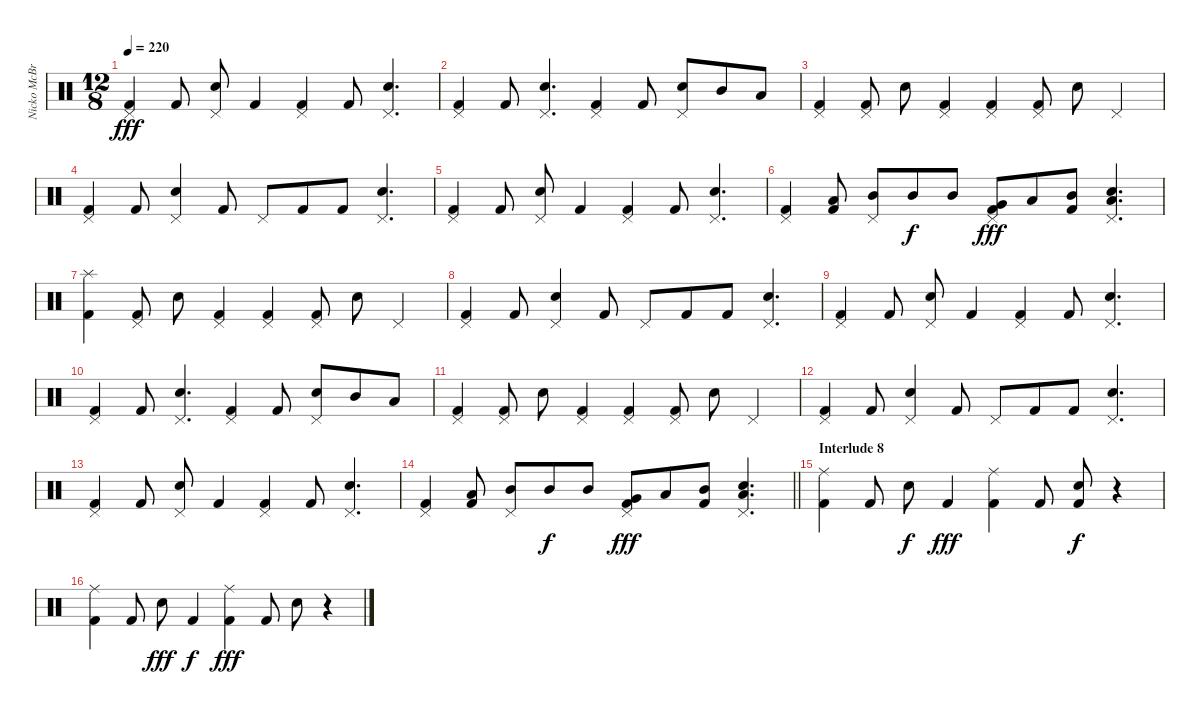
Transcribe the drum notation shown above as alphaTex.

\track ("Nicko McBrain" "Nicko McBr") {instrument percussion}
\staff {score}
\articulation defaults
\ts (12 8)
\tempo 220
\clef neutral
\ks c
("Pedal Hi-Hat (hit)" "Kick (hit) 2").4{dy fff} "Kick (hit) 2".8 ("Snare (hit) 2" "Pedal Hi-Hat (hit)").8 "Kick (hit) 2".4 ("Pedal Hi-Hat (hit)" "Kick (hit) 2").4 "Kick (hit) 2".8 ("Snare (hit) 2" "Pedal Hi-Hat (hit)").4{d} |
("Pedal Hi-Hat (hit)" "Kick (hit) 2").4 "Kick (hit) 2".8 ("Snare (hit) 2" "Pedal Hi-Hat (hit)").4{d} ("Pedal Hi-Hat (hit)" "Kick (hit) 2").4 "Kick (hit) 2".8 ("Snare (hit) 2" "Pedal Hi-Hat (hit)").8 "Mid Tom (hit)".8 "Low Tom (hit)".8 |
("Pedal Hi-Hat (hit)" "Kick (hit) 2").4 ("Pedal Hi-Hat (hit)" "Kick (hit) 2").8 "Snare (hit) 2".8 ("Pedal Hi-Hat (hit)" "Kick (hit) 2").4 ("Pedal Hi-Hat (hit)" "Kick (hit) 2").4 ("Pedal Hi-Hat (hit)" "Kick (hit) 2").8 "Snare (hit) 2".8 "Pedal Hi-Hat (hit)".4 |
("Pedal Hi-Hat (hit)" "Kick (hit) 2").4 "Kick (hit) 2".8 ("Snare (hit) 2" "Pedal Hi-Hat (hit)").4 "Kick (hit) 2".8 "Pedal Hi-Hat (hit)".8 "Kick (hit) 2".8 "Kick (hit) 2".8 ("Snare (hit) 2" "Pedal Hi-Hat (hit)").4{d} |
("Pedal Hi-Hat (hit)" "Kick (hit) 2").4 "Kick (hit) 2".8 ("Snare (hit) 2" "Pedal Hi-Hat (hit)").8 "Kick (hit) 2".4 ("Pedal Hi-Hat (hit)" "Kick (hit) 2").4 "Kick (hit) 2".8 ("Snare (hit) 2" "Pedal Hi-Hat (hit)").4{d} |
("Pedal Hi-Hat (hit)" "Kick (hit) 2").4 ("Low Tom (hit)" "Kick (hit) 2").8 ("Mid Tom (hit)" "Pedal Hi-Hat (hit)").8 "Mid Tom (hit)".8{dy f} "Mid Tom (hit)".8 ("Very Low Tom (hit)" "Pedal Hi-Hat (hit)" "Kick (hit) 2").8{dy fff} "Low Tom (hit)".8 ("Mid Tom (hit)" "Kick (hit) 2").8 ("Snare (hit) 2" "Low Tom (hit)" "Pedal Hi-Hat (hit)").4{d} |
("Splash (hit)" "Kick (hit) 2").4 ("Pedal Hi-Hat (hit)" "Kick (hit) 2").8 "Snare (hit) 2".8 ("Pedal Hi-Hat (hit)" "Kick (hit) 2").4 ("Pedal Hi-Hat (hit)" "Kick (hit) 2").4 ("Pedal Hi-Hat (hit)" "Kick (hit) 2").8 "Snare (hit) 2".8 "Pedal Hi-Hat (hit)".4 |
("Pedal Hi-Hat (hit)" "Kick (hit) 2").4 "Kick (hit) 2".8 ("Snare (hit) 2" "Pedal Hi-Hat (hit)").4 "Kick (hit) 2".8 "Pedal Hi-Hat (hit)".8 "Kick (hit) 2".8 "Kick (hit) 2".8 ("Snare (hit) 2" "Pedal Hi-Hat (hit)").4{d} |
("Pedal Hi-Hat (hit)" "Kick (hit) 2").4 "Kick (hit) 2".8 ("Snare (hit) 2" "Pedal Hi-Hat (hit)").8 "Kick (hit) 2".4 ("Pedal Hi-Hat (hit)" "Kick (hit) 2").4 "Kick (hit) 2".8 ("Snare (hit) 2" "Pedal Hi-Hat (hit)").4{d} |
("Pedal Hi-Hat (hit)" "Kick (hit) 2").4 "Kick (hit) 2".8 ("Snare (hit) 2" "Pedal Hi-Hat (hit)").4{d} ("Pedal Hi-Hat (hit)" "Kick (hit) 2").4 "Kick (hit) 2".8 ("Snare (hit) 2" "Pedal Hi-Hat (hit)").8 "Mid Tom (hit)".8 "Low Tom (hit)".8 |
("Pedal Hi-Hat (hit)" "Kick (hit) 2").4 ("Pedal Hi-Hat (hit)" "Kick (hit) 2").8 "Snare (hit) 2".8 ("Pedal Hi-Hat (hit)" "Kick (hit) 2").4 ("Pedal Hi-Hat (hit)" "Kick (hit) 2").4 ("Pedal Hi-Hat (hit)" "Kick (hit) 2").8 "Snare (hit) 2".8 "Pedal Hi-Hat (hit)".4 |
("Pedal Hi-Hat (hit)" "Kick (hit) 2").4 "Kick (hit) 2".8 ("Snare (hit) 2" "Pedal Hi-Hat (hit)").4 "Kick (hit) 2".8 "Pedal Hi-Hat (hit)".8 "Kick (hit) 2".8 "Kick (hit) 2".8 ("Snare (hit) 2" "Pedal Hi-Hat (hit)").4{d} |
("Pedal Hi-Hat (hit)" "Kick (hit) 2").4 "Kick (hit) 2".8 ("Snare (hit) 2" "Pedal Hi-Hat (hit)").8 "Kick (hit) 2".4 ("Pedal Hi-Hat (hit)" "Kick (hit) 2").4 "Kick (hit) 2".8 ("Snare (hit) 2" "Pedal Hi-Hat (hit)").4{d} |
\barLineRight lightlight
("Pedal Hi-Hat (hit)" "Kick (hit) 2").4 ("Low Tom (hit)" "Kick (hit) 2").8 ("Mid Tom (hit)" "Pedal Hi-Hat (hit)").8 "Mid Tom (hit)".8{dy f} "Mid Tom (hit)".8 ("Very Low Tom (hit)" "Pedal Hi-Hat (hit)" "Kick (hit) 2").8{dy fff} "Low Tom (hit)".8 ("Mid Tom (hit)" "Kick (hit) 2").8 ("Snare (hit) 2" "Low Tom (hit)" "Pedal Hi-Hat (hit)").4{d} |
\section ("" "Interlude 8")
("Ride (middle)" "Kick (hit) 2").4 "Kick (hit) 2".8 "Snare (hit) 2".8{dy f} "Kick (hit) 2".4{dy fff} ("Ride (middle)" "Kick (hit) 2").4 "Kick (hit) 2".8 ("Snare (hit) 2" "Kick (hit) 2").8{dy f} r.4 |
("Ride (middle)" "Kick (hit) 2").4 "Kick (hit) 2".8 "Snare (hit) 2".8{dy fff} "Kick (hit) 2".4{dy f} ("Ride (middle)" "Kick (hit) 2").4{dy fff} "Kick (hit) 2".8 "Snare (hit) 2".8 r.4
